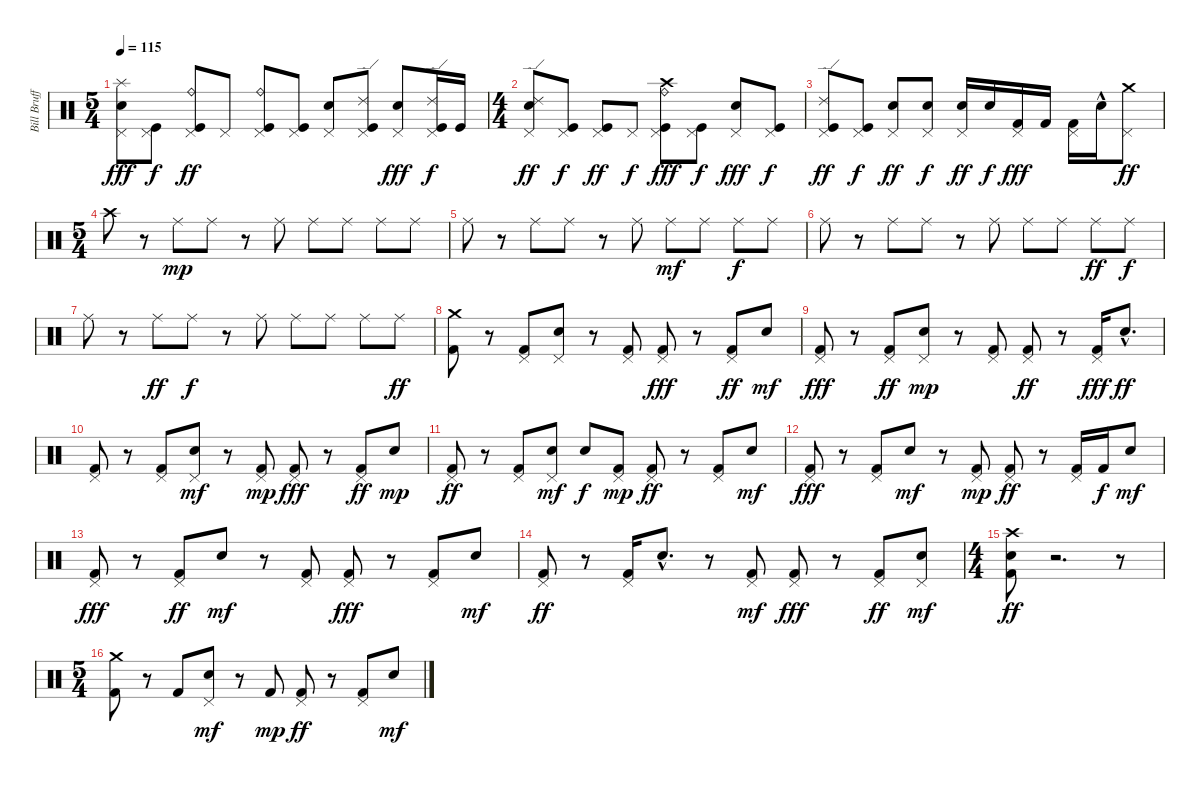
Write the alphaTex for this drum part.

\track ("Bill Brufford Drums" "Bill Bruff") {instrument percussion}
\staff {score}
\articulation defaults
\ts (5 4)
\tempo 115
\clef neutral
\ks c
("Pedal Hi-Hat (hit)" "Electric Snare (hit)" "Splash (hit)").8{dy fff} ("Pedal Hi-Hat (hit)" "Kick (hit)").8{dy f} ("Pedal Hi-Hat (hit)" "Ride (bell)" "Kick (hit)").8{dy ff} "Pedal Hi-Hat (hit)".8 ("Pedal Hi-Hat (hit)" "Ride (bell)" "Kick (hit)").8 ("Pedal Hi-Hat (hit)" "Kick (hit)").8 ("Pedal Hi-Hat (hit)" "Electric Snare (hit)").8 ("Pedal Hi-Hat (hit)" "Ride (edge) 2" "Kick (hit)").8 ("Pedal Hi-Hat (hit)" "Electric Snare (hit)").8{dy fff} ("Pedal Hi-Hat (hit)" "Kick (hit)" "Ride (edge) 2").16{dy f} "Kick (hit)".16 |
\ts (4 4)
("Pedal Hi-Hat (hit)" "Electric Snare (hit)" "Ride (edge) 2").8{dy ff} ("Pedal Hi-Hat (hit)" "Kick (hit)").8{dy f} ("Pedal Hi-Hat (hit)" "Kick (hit)").8{dy ff} "Pedal Hi-Hat (hit)".8{dy f} ("Pedal Hi-Hat (hit)" "Ride (bell)" "Crash high (hit)" "Kick (hit)").8{dy fff} ("Pedal Hi-Hat (hit)" "Kick (hit)").8{dy f} ("Pedal Hi-Hat (hit)" "Electric Snare (hit)").8{dy fff} ("Pedal Hi-Hat (hit)" "Kick (hit)").8{dy f} |
("Kick (hit)" "Pedal Hi-Hat (hit)" "Ride (edge) 2").8{dy ff} ("Pedal Hi-Hat (hit)" "Kick (hit)").8{dy f} ("Electric Snare (hit)" "Pedal Hi-Hat (hit)").8{dy ff} ("Electric Snare (hit)" "Pedal Hi-Hat (hit)").8{dy f} ("Snare (hit) 2" "Pedal Hi-Hat (hit)").16{dy ff} "Snare (hit) 2".16{dy f} ("Kick (hit) 2" "Pedal Hi-Hat (hit)").16{dy fff} "Kick (hit) 2".16 ("Kick (hit) 2" "Pedal Hi-Hat (hit)").16 "Electric Snare (hit)"{hac}.16 ("Crash medium (hit)" "Pedal Hi-Hat (hit)").8{dy ff} |
\ts (5 4)
"Crash high (hit)".8 r.8 "Ride (middle)".8{dy mp} "Ride (middle)".8 r.8 "Ride (middle)".8 "Ride (middle)".8 "Ride (middle)".8 "Ride (middle)".8 "Ride (middle)".8 |
"Ride (middle)".8 r.8 "Ride (middle)".8 "Ride (middle)".8 r.8 "Ride (middle)".8 "Ride (middle)".8{dy mf} "Ride (middle)".8 "Ride (middle)".8{dy f} "Ride (middle)".8 |
"Ride (middle)".8 r.8 "Ride (middle)".8 "Ride (middle)".8 r.8 "Ride (middle)".8 "Ride (middle)".8 "Ride (middle)".8 "Ride (middle)".8{dy ff} "Ride (middle)".8{dy f} |
"Ride (middle)".8 r.8 "Ride (middle)".8{dy ff} "Ride (middle)".8{dy f} r.8 "Ride (middle)".8 "Ride (middle)".8 "Ride (middle)".8 "Ride (middle)".8 "Ride (middle)".8{dy ff} |
("Kick (hit) 2" "Crash medium (hit)").8 r.8 ("Pedal Hi-Hat (hit)" "Kick (hit) 2").8 ("Pedal Hi-Hat (hit)" "Electric Snare (hit)").8 r.8 ("Pedal Hi-Hat (hit)" "Kick (hit) 2").8 ("Pedal Hi-Hat (hit)" "Kick (hit) 2").8{dy fff} r.8 ("Pedal Hi-Hat (hit)" "Kick (hit) 2").8{dy ff} "Electric Snare (hit)".8{dy mf} |
("Pedal Hi-Hat (hit)" "Kick (hit) 2").8{dy fff} r.8 ("Pedal Hi-Hat (hit)" "Kick (hit) 2").8{dy ff} ("Pedal Hi-Hat (hit)" "Electric Snare (hit)").8{dy mp} r.8 ("Pedal Hi-Hat (hit)" "Kick (hit) 2").8 ("Pedal Hi-Hat (hit)" "Kick (hit) 2").8{dy ff} r.8 ("Pedal Hi-Hat (hit)" "Kick (hit) 2").16{dy fff} "Electric Snare (hit)"{hac}.8{d dy ff} |
("Pedal Hi-Hat (hit)" "Kick (hit) 2").8 r.8 ("Pedal Hi-Hat (hit)" "Kick (hit) 2").8 ("Pedal Hi-Hat (hit)" "Electric Snare (hit)").8{dy mf} r.8 ("Pedal Hi-Hat (hit)" "Kick (hit) 2").8{dy mp} ("Pedal Hi-Hat (hit)" "Kick (hit) 2").8{dy fff} r.8 ("Pedal Hi-Hat (hit)" "Kick (hit) 2").8{dy ff} "Electric Snare (hit)".8{dy mp} |
("Pedal Hi-Hat (hit)" "Kick (hit) 2").8{dy ff} r.8 ("Pedal Hi-Hat (hit)" "Kick (hit) 2").8 ("Pedal Hi-Hat (hit)" "Electric Snare (hit)").8{dy mf} "Electric Snare (hit)".8{dy f} ("Pedal Hi-Hat (hit)" "Kick (hit) 2").8{dy mp} ("Pedal Hi-Hat (hit)" "Kick (hit) 2").8{dy ff} r.8 ("Pedal Hi-Hat (hit)" "Kick (hit) 2").8 "Electric Snare (hit)".8{dy mf} |
("Pedal Hi-Hat (hit)" "Kick (hit) 2").8{dy fff} r.8 ("Pedal Hi-Hat (hit)" "Kick (hit) 2").8 "Electric Snare (hit)".8{dy mf} r.8 ("Pedal Hi-Hat (hit)" "Kick (hit) 2").8{dy mp} ("Pedal Hi-Hat (hit)" "Kick (hit) 2").8{dy ff} r.8 ("Pedal Hi-Hat (hit)" "Kick (hit) 2").16 "Kick (hit) 2".16{dy f} "Electric Snare (hit)".8{dy mf} |
("Pedal Hi-Hat (hit)" "Kick (hit) 2").8{dy fff} r.8 ("Pedal Hi-Hat (hit)" "Kick (hit) 2").8{dy ff} "Electric Snare (hit)".8{dy mf} r.8 ("Pedal Hi-Hat (hit)" "Kick (hit) 2").8 ("Pedal Hi-Hat (hit)" "Kick (hit) 2").8{dy fff} r.8 ("Pedal Hi-Hat (hit)" "Kick (hit) 2").8 "Electric Snare (hit)".8{dy mf} |
("Pedal Hi-Hat (hit)" "Kick (hit) 2").8{dy ff} r.8 ("Pedal Hi-Hat (hit)" "Kick (hit) 2").16 "Electric Snare (hit)"{hac}.8{d} r.8 ("Pedal Hi-Hat (hit)" "Kick (hit) 2").8{dy mf} ("Pedal Hi-Hat (hit)" "Kick (hit) 2").8{dy fff} r.8 ("Pedal Hi-Hat (hit)" "Kick (hit) 2").8{dy ff} ("Pedal Hi-Hat (hit)" "Electric Snare (hit)").8{dy mf} |
\ts (4 4)
("Kick (hit) 2" "Crash high (hit)" "Snare (hit) 2").8{dy ff} r.2{d} r.8 |
\ts (5 4)
("Kick (hit) 2" "Crash medium (hit)").8 r.8 "Kick (hit) 2".8 ("Pedal Hi-Hat (hit)" "Electric Snare (hit)").8{dy mf} r.8 "Kick (hit) 2".8{dy mp} ("Pedal Hi-Hat (hit)" "Kick (hit) 2").8{dy ff} r.8 ("Pedal Hi-Hat (hit)" "Kick (hit) 2").8 "Electric Snare (hit)".8{dy mf}
